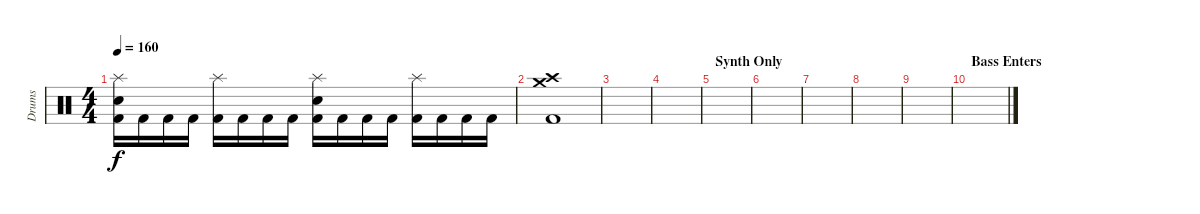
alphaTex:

\track ("Drums" "Drums") {instrument percussion}
\staff {score}
\articulation defaults
\ts (4 4)
\tempo 160
\clef neutral
\ks c
("Splash (hit)" "Snare (hit) 2" "Kick (hit) 2").16{dy f} "Kick (hit) 2".16 "Kick (hit) 2".16 "Kick (hit) 2".16 ("Splash (hit)" "Kick (hit) 2").16 "Kick (hit) 2".16 "Kick (hit) 2".16 "Kick (hit) 2".16 ("Splash (hit)" "Snare (hit) 2" "Kick (hit) 2").16 "Kick (hit) 2".16 "Kick (hit) 2".16 "Kick (hit) 2".16 ("Splash (hit)" "Kick (hit) 2").16 "Kick (hit) 2".16 "Kick (hit) 2".16 "Kick (hit) 2".16 |
("Crash high (hit)" "Crash medium (hit)" "Kick (hit) 2").1 |
|
|
\section ("" "Synth Only")
|
|
|
|
|
\section ("" "Bass Enters")
